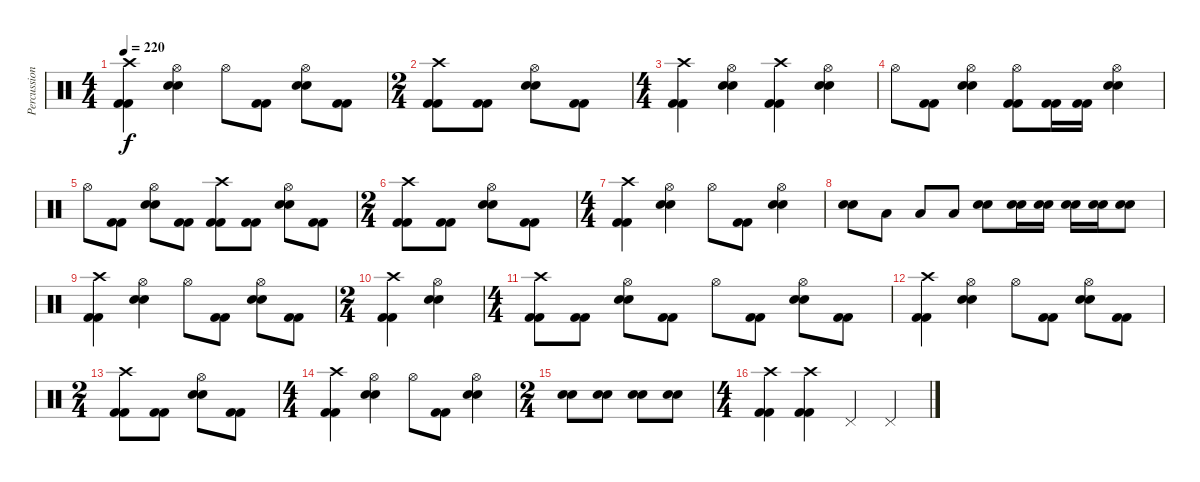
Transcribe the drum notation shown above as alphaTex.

\track ("Percussion" "Percussion") {instrument percussion}
\staff {score}
\articulation defaults
\ts (4 4)
\tempo 220
\clef neutral
\ks c
("Crash high (hit)" "Kick (hit) 2" "Kick (hit) 2").4{dy f} ("Hi-Hat (open)" "Electric Snare (hit)" "Electric Snare (hit)").4 "Hi-Hat (open)".8 ("Kick (hit) 2" "Kick (hit) 2").8 ("Hi-Hat (open)" "Electric Snare (hit)" "Electric Snare (hit)").8 ("Kick (hit) 2" "Kick (hit) 2").8 |
\ts (2 4)
("Crash high (hit)" "Kick (hit) 2" "Kick (hit) 2").8 ("Kick (hit) 2" "Kick (hit) 2").8 ("Hi-Hat (open)" "Electric Snare (hit)" "Electric Snare (hit)").8 ("Kick (hit) 2" "Kick (hit) 2").8 |
\ts (4 4)
("Crash high (hit)" "Kick (hit) 2" "Kick (hit) 2").4 ("Hi-Hat (open)" "Electric Snare (hit)" "Electric Snare (hit)").4 ("Crash high (hit)" "Kick (hit) 2" "Kick (hit) 2").4 ("Hi-Hat (open)" "Electric Snare (hit)" "Electric Snare (hit)").4 |
"Hi-Hat (open)".8 ("Kick (hit) 2" "Kick (hit) 2").8 ("Hi-Hat (open)" "Electric Snare (hit)" "Electric Snare (hit)").4 ("Hi-Hat (open)" "Kick (hit) 2" "Kick (hit) 2").8 ("Kick (hit) 2" "Kick (hit) 2").16 ("Kick (hit) 2" "Kick (hit) 2").16 ("Hi-Hat (open)" "Electric Snare (hit)" "Electric Snare (hit)").4 |
"Hi-Hat (open)".8 ("Kick (hit) 2" "Kick (hit) 2").8 ("Hi-Hat (open)" "Electric Snare (hit)" "Electric Snare (hit)").8 ("Kick (hit) 2" "Kick (hit) 2").8 ("Crash high (hit)" "Kick (hit) 2" "Kick (hit) 2").8 ("Kick (hit) 2" "Kick (hit) 2").8 ("Hi-Hat (open)" "Electric Snare (hit)" "Electric Snare (hit)").8 ("Kick (hit) 2" "Kick (hit) 2").8 |
\ts (2 4)
("Crash high (hit)" "Kick (hit) 2" "Kick (hit) 2").8 ("Kick (hit) 2" "Kick (hit) 2").8 ("Hi-Hat (open)" "Electric Snare (hit)" "Electric Snare (hit)").8 ("Kick (hit) 2" "Kick (hit) 2").8 |
\ts (4 4)
("Crash high (hit)" "Kick (hit) 2" "Kick (hit) 2").4 ("Hi-Hat (open)" "Electric Snare (hit)" "Electric Snare (hit)").4 "Hi-Hat (open)".8 ("Kick (hit) 2" "Kick (hit) 2").8 ("Hi-Hat (open)" "Electric Snare (hit)" "Electric Snare (hit)").4 |
("Electric Snare (hit)" "Electric Snare (hit)").8 "Low Tom (hit)".8 "Low Tom (hit)".8 "Low Tom (hit)".8 ("Electric Snare (hit)" "Electric Snare (hit)").8 ("Electric Snare (hit)" "Electric Snare (hit)").16 ("Electric Snare (hit)" "Electric Snare (hit)").16 ("Electric Snare (hit)" "Electric Snare (hit)").16 ("Electric Snare (hit)" "Electric Snare (hit)").16 ("Electric Snare (hit)" "Electric Snare (hit)").8 |
("Crash high (hit)" "Kick (hit) 2" "Kick (hit) 2").4 ("Hi-Hat (open)" "Electric Snare (hit)" "Electric Snare (hit)").4 "Hi-Hat (open)".8 ("Kick (hit) 2" "Kick (hit) 2").8 ("Hi-Hat (open)" "Electric Snare (hit)" "Electric Snare (hit)").8 ("Kick (hit) 2" "Kick (hit) 2").8 |
\ts (2 4)
("Crash high (hit)" "Kick (hit) 2" "Kick (hit) 2").4 ("Hi-Hat (open)" "Electric Snare (hit)" "Electric Snare (hit)").4 |
\ts (4 4)
("Crash high (hit)" "Kick (hit) 2" "Kick (hit) 2").8 ("Kick (hit) 2" "Kick (hit) 2").8 ("Hi-Hat (open)" "Electric Snare (hit)" "Electric Snare (hit)").8 ("Kick (hit) 2" "Kick (hit) 2").8 "Hi-Hat (open)".8 ("Kick (hit) 2" "Kick (hit) 2").8 ("Hi-Hat (open)" "Electric Snare (hit)" "Electric Snare (hit)").8 ("Kick (hit) 2" "Kick (hit) 2").8 |
("Crash high (hit)" "Kick (hit) 2" "Kick (hit) 2").4 ("Hi-Hat (open)" "Electric Snare (hit)" "Electric Snare (hit)").4 "Hi-Hat (open)".8 ("Kick (hit) 2" "Kick (hit) 2").8 ("Hi-Hat (open)" "Electric Snare (hit)" "Electric Snare (hit)").8 ("Kick (hit) 2" "Kick (hit) 2").8 |
\ts (2 4)
("Crash high (hit)" "Kick (hit) 2" "Kick (hit) 2").8 ("Kick (hit) 2" "Kick (hit) 2").8 ("Hi-Hat (open)" "Electric Snare (hit)" "Electric Snare (hit)").8 ("Kick (hit) 2" "Kick (hit) 2").8 |
\ts (4 4)
("Crash high (hit)" "Kick (hit) 2" "Kick (hit) 2").4 ("Hi-Hat (open)" "Electric Snare (hit)" "Electric Snare (hit)").4 "Hi-Hat (open)".8 ("Kick (hit) 2" "Kick (hit) 2").8 ("Hi-Hat (open)" "Electric Snare (hit)" "Electric Snare (hit)").4 |
\ts (2 4)
("Electric Snare (hit)" "Electric Snare (hit)").8 ("Electric Snare (hit)" "Electric Snare (hit)").8 ("Electric Snare (hit)" "Electric Snare (hit)").8 ("Electric Snare (hit)" "Electric Snare (hit)").8 |
\ts (4 4)
("Crash high (hit)" "Kick (hit) 2" "Kick (hit) 2").4 ("Crash high (hit)" "Kick (hit) 2" "Kick (hit) 2").4 "Pedal Hi-Hat (hit)".4 "Pedal Hi-Hat (hit)".4
